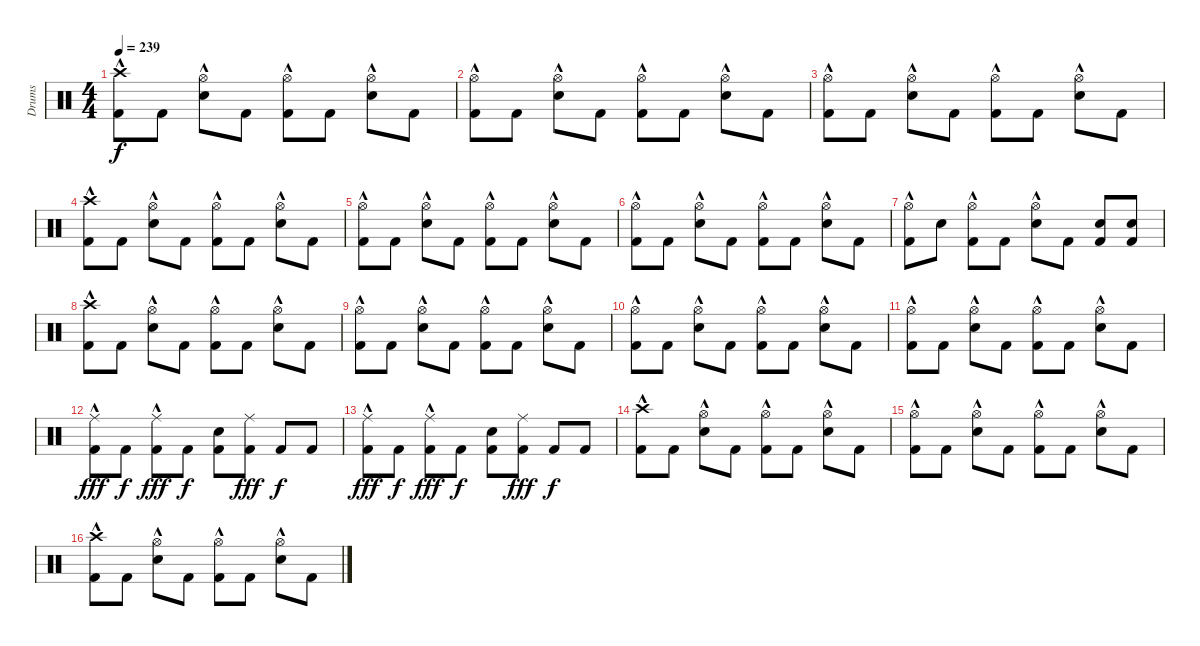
\track ("Drums" "Drums") {instrument percussion}
\staff {score}
\articulation defaults
\ts (4 4)
\tempo 239
\clef neutral
\ks c
("Kick (hit) 2" "Crash high (hit)"{hac}).8{dy f} "Kick (hit) 2".8 ("Snare (hit) 2"{hac} "Hi-Hat (open)"{hac}).8 "Kick (hit) 2".8 ("Hi-Hat (open)"{hac} "Kick (hit) 2").8 "Kick (hit) 2".8 ("Snare (hit) 2"{hac} "Hi-Hat (open)"{hac}).8 "Kick (hit) 2".8 |
("Hi-Hat (open)"{hac} "Kick (hit) 2").8 "Kick (hit) 2".8 ("Snare (hit) 2"{hac} "Hi-Hat (open)"{hac}).8 "Kick (hit) 2".8 ("Hi-Hat (open)"{hac} "Kick (hit) 2").8 "Kick (hit) 2".8 ("Snare (hit) 2"{hac} "Hi-Hat (open)"{hac}).8 "Kick (hit) 2".8 |
("Hi-Hat (open)"{hac} "Kick (hit) 2").8 "Kick (hit) 2".8 ("Snare (hit) 2"{hac} "Hi-Hat (open)"{hac}).8 "Kick (hit) 2".8 ("Hi-Hat (open)"{hac} "Kick (hit) 2").8 "Kick (hit) 2".8 ("Snare (hit) 2"{hac} "Hi-Hat (open)"{hac}).8 "Kick (hit) 2".8 |
("Crash high (hit)"{hac} "Kick (hit) 2").8 "Kick (hit) 2".8 ("Snare (hit) 2"{hac} "Hi-Hat (open)"{hac}).8 "Kick (hit) 2".8 ("Hi-Hat (open)"{hac} "Kick (hit) 2").8 "Kick (hit) 2".8 ("Snare (hit) 2"{hac} "Hi-Hat (open)"{hac}).8 "Kick (hit) 2".8 |
("Hi-Hat (open)"{hac} "Kick (hit) 2").8 "Kick (hit) 2".8 ("Snare (hit) 2"{hac} "Hi-Hat (open)"{hac}).8 "Kick (hit) 2".8 ("Hi-Hat (open)"{hac} "Kick (hit) 2").8 "Kick (hit) 2".8 ("Snare (hit) 2"{hac} "Hi-Hat (open)"{hac}).8 "Kick (hit) 2".8 |
("Hi-Hat (open)"{hac} "Kick (hit) 2").8 "Kick (hit) 2".8 ("Snare (hit) 2"{hac} "Hi-Hat (open)"{hac}).8 "Kick (hit) 2".8 ("Hi-Hat (open)"{hac} "Kick (hit) 2").8 "Kick (hit) 2".8 ("Snare (hit) 2"{hac} "Hi-Hat (open)"{hac}).8 "Kick (hit) 2".8 |
("Kick (hit) 2"{hac} "Hi-Hat (open)"{hac}).8 "Snare (hit) 2".8 ("Kick (hit) 2" "Hi-Hat (open)"{hac}).8 "Kick (hit) 2".8 ("Hi-Hat (open)"{hac} "Snare (hit) 2"{hac}).8 "Kick (hit) 2".8 ("Kick (hit) 2" "Snare (hit) 2").8 ("Kick (hit) 2" "Snare (hit) 2").8 |
("Crash high (hit)"{hac} "Kick (hit) 2").8 "Kick (hit) 2".8 ("Snare (hit) 2"{hac} "Hi-Hat (open)"{hac}).8 "Kick (hit) 2".8 ("Hi-Hat (open)"{hac} "Kick (hit) 2").8 "Kick (hit) 2".8 ("Snare (hit) 2"{hac} "Hi-Hat (open)"{hac}).8 "Kick (hit) 2".8 |
("Hi-Hat (open)"{hac} "Kick (hit) 2").8 "Kick (hit) 2".8 ("Snare (hit) 2"{hac} "Hi-Hat (open)"{hac}).8 "Kick (hit) 2".8 ("Hi-Hat (open)"{hac} "Kick (hit) 2").8 "Kick (hit) 2".8 ("Snare (hit) 2"{hac} "Hi-Hat (open)"{hac}).8 "Kick (hit) 2".8 |
("Hi-Hat (open)"{hac} "Kick (hit) 2").8 "Kick (hit) 2".8 ("Snare (hit) 2"{hac} "Hi-Hat (open)"{hac}).8 "Kick (hit) 2".8 ("Hi-Hat (open)"{hac} "Kick (hit) 2").8 "Kick (hit) 2".8 ("Snare (hit) 2"{hac} "Hi-Hat (open)"{hac}).8 "Kick (hit) 2".8 |
("Hi-Hat (open)"{hac} "Kick (hit) 2").8 "Kick (hit) 2".8 ("Snare (hit) 2"{hac} "Hi-Hat (open)"{hac}).8 "Kick (hit) 2".8 ("Hi-Hat (open)"{hac} "Kick (hit) 2").8 "Kick (hit) 2".8 ("Snare (hit) 2"{hac} "Hi-Hat (open)"{hac}).8 "Kick (hit) 2".8 |
("Kick (hit) 2" "Ride (middle)"{hac}).8{dy fff} "Kick (hit) 2".8{dy f} ("Kick (hit) 2" "Ride (middle)"{hac}).8{dy fff} "Kick (hit) 2".8{dy f} ("Kick (hit) 2" "Snare (hit) 2").8 ("Kick (hit) 2" "Ride (middle)").8{dy fff} "Kick (hit) 2".8{dy f} "Kick (hit) 2".8 |
("Kick (hit) 2" "Ride (middle)"{hac}).8{dy fff} "Kick (hit) 2".8{dy f} ("Kick (hit) 2" "Ride (middle)"{hac}).8{dy fff} "Kick (hit) 2".8{dy f} ("Kick (hit) 2" "Snare (hit) 2").8 ("Kick (hit) 2" "Ride (middle)").8{dy fff} "Kick (hit) 2".8{dy f} "Kick (hit) 2".8 |
("Crash high (hit)"{hac} "Kick (hit) 2").8 "Kick (hit) 2".8 ("Snare (hit) 2"{hac} "Hi-Hat (open)"{hac}).8 "Kick (hit) 2".8 ("Hi-Hat (open)"{hac} "Kick (hit) 2").8 "Kick (hit) 2".8 ("Snare (hit) 2"{hac} "Hi-Hat (open)"{hac}).8 "Kick (hit) 2".8 |
("Hi-Hat (open)"{hac} "Kick (hit) 2").8 "Kick (hit) 2".8 ("Snare (hit) 2"{hac} "Hi-Hat (open)"{hac}).8 "Kick (hit) 2".8 ("Hi-Hat (open)"{hac} "Kick (hit) 2").8 "Kick (hit) 2".8 ("Snare (hit) 2"{hac} "Hi-Hat (open)"{hac}).8 "Kick (hit) 2".8 |
("Kick (hit) 2" "Crash high (hit)"{hac}).8 "Kick (hit) 2".8 ("Snare (hit) 2"{hac} "Hi-Hat (open)"{hac}).8 "Kick (hit) 2".8 ("Hi-Hat (open)"{hac} "Kick (hit) 2").8 "Kick (hit) 2".8 ("Snare (hit) 2"{hac} "Hi-Hat (open)"{hac}).8 "Kick (hit) 2".8
